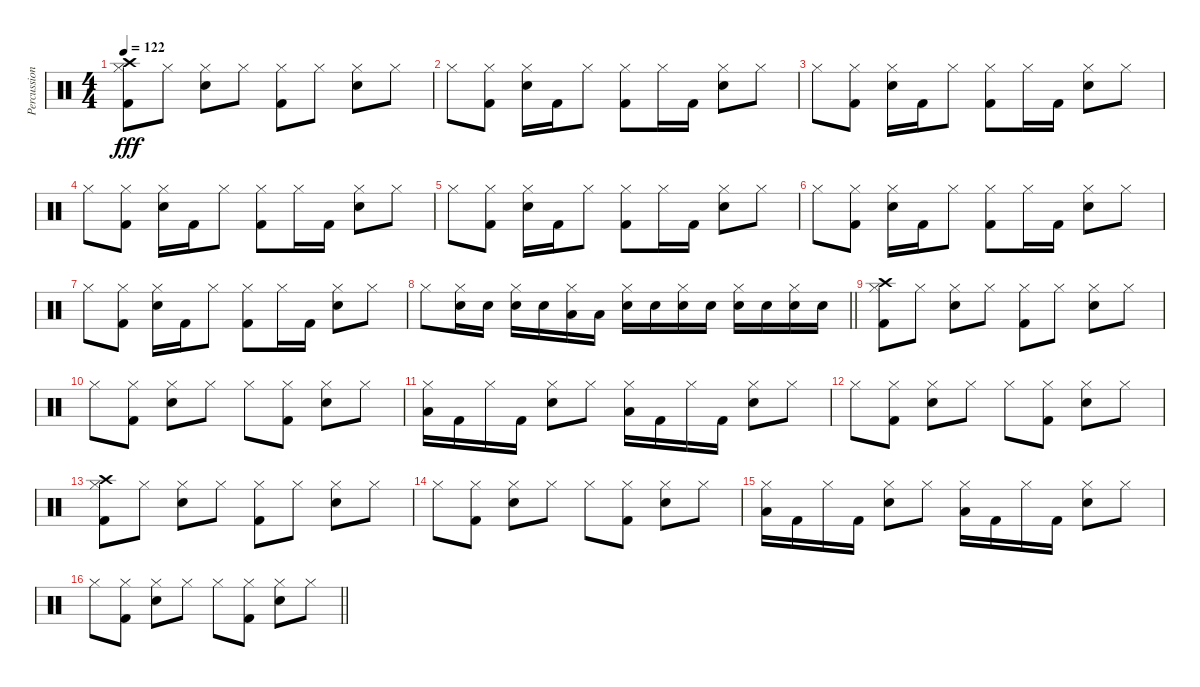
\track ("Percussion" "Percussion") {instrument percussion}
\staff {score}
\articulation defaults
\ts (4 4)
\tempo 122
\clef neutral
\ks c
("Crash high (hit)" "Hi-Hat (closed)" "Kick (hit) 2").8{dy fff} "Hi-Hat (closed)".8 ("Hi-Hat (closed)" "Electric Snare (hit)").8 "Hi-Hat (closed)".8 ("Hi-Hat (closed)" "Kick (hit) 2").8 "Hi-Hat (closed)".8 ("Hi-Hat (closed)" "Electric Snare (hit)").8 "Hi-Hat (closed)".8 |
"Hi-Hat (closed)".8 ("Hi-Hat (closed)" "Kick (hit) 2").8 ("Hi-Hat (closed)" "Electric Snare (hit)").16 "Kick (hit) 2".16 "Hi-Hat (closed)".8 ("Hi-Hat (closed)" "Kick (hit) 2").8 "Hi-Hat (closed)".16 "Kick (hit) 2".16 ("Hi-Hat (closed)" "Electric Snare (hit)").8 "Hi-Hat (closed)".8 |
"Hi-Hat (closed)".8 ("Hi-Hat (closed)" "Kick (hit) 2").8 ("Hi-Hat (closed)" "Electric Snare (hit)").16 "Kick (hit) 2".16 "Hi-Hat (closed)".8 ("Hi-Hat (closed)" "Kick (hit) 2").8 "Hi-Hat (closed)".16 "Kick (hit) 2".16 ("Hi-Hat (closed)" "Electric Snare (hit)").8 "Hi-Hat (closed)".8 |
"Hi-Hat (closed)".8 ("Hi-Hat (closed)" "Kick (hit) 2").8 ("Hi-Hat (closed)" "Electric Snare (hit)").16 "Kick (hit) 2".16 "Hi-Hat (closed)".8 ("Hi-Hat (closed)" "Kick (hit) 2").8 "Hi-Hat (closed)".16 "Kick (hit) 2".16 ("Hi-Hat (closed)" "Electric Snare (hit)").8 "Hi-Hat (closed)".8 |
"Hi-Hat (closed)".8 ("Hi-Hat (closed)" "Kick (hit) 2").8 ("Hi-Hat (closed)" "Electric Snare (hit)").16 "Kick (hit) 2".16 "Hi-Hat (closed)".8 ("Hi-Hat (closed)" "Kick (hit) 2").8 "Hi-Hat (closed)".16 "Kick (hit) 2".16 ("Hi-Hat (closed)" "Electric Snare (hit)").8 "Hi-Hat (closed)".8 |
"Hi-Hat (closed)".8 ("Hi-Hat (closed)" "Kick (hit) 2").8 ("Hi-Hat (closed)" "Electric Snare (hit)").16 "Kick (hit) 2".16 "Hi-Hat (closed)".8 ("Hi-Hat (closed)" "Kick (hit) 2").8 "Hi-Hat (closed)".16 "Kick (hit) 2".16 ("Hi-Hat (closed)" "Electric Snare (hit)").8 "Hi-Hat (closed)".8 |
"Hi-Hat (closed)".8 ("Hi-Hat (closed)" "Kick (hit) 2").8 ("Hi-Hat (closed)" "Electric Snare (hit)").16 "Kick (hit) 2".16 "Hi-Hat (closed)".8 ("Hi-Hat (closed)" "Kick (hit) 2").8 "Hi-Hat (closed)".16 "Kick (hit) 2".16 ("Hi-Hat (closed)" "Electric Snare (hit)").8 "Hi-Hat (closed)".8 |
\barLineRight lightlight "Hi-Hat (closed)".8
("Hi-Hat (closed)" "Electric Snare (hit)").16 "Electric Snare (hit)".16 ("Hi-Hat (closed)" "Electric Snare (hit)").16 "Electric Snare (hit)".16 ("Hi-Hat (closed)" "Low Tom (hit)").16 "Low Tom (hit)".16 ("Hi-Hat (closed)" "Electric Snare (hit)").16 "Electric Snare (hit)".16 ("Hi-Hat (closed)" "Electric Snare (hit)").16 "Electric Snare (hit)".16 ("Hi-Hat (closed)" "Electric Snare (hit)").16 "Electric Snare (hit)".16 ("Hi-Hat (closed)" "Electric Snare (hit)").16 "Electric Snare (hit)".16 |
("Crash high (hit)" "Hi-Hat (closed)" "Kick (hit) 2").8 "Hi-Hat (closed)".8 ("Hi-Hat (closed)" "Electric Snare (hit)").8 "Hi-Hat (closed)".8 ("Hi-Hat (closed)" "Kick (hit) 2").8 "Hi-Hat (closed)".8 ("Hi-Hat (closed)" "Electric Snare (hit)").8 "Hi-Hat (closed)".8 |
"Hi-Hat (closed)".8 ("Hi-Hat (closed)" "Kick (hit) 2").8 ("Hi-Hat (closed)" "Electric Snare (hit)").8 "Hi-Hat (closed)".8 "Hi-Hat (closed)".8 ("Hi-Hat (closed)" "Kick (hit) 2").8 ("Hi-Hat (closed)" "Electric Snare (hit)").8 "Hi-Hat (closed)".8 |
("Hi-Hat (closed)" "Low Tom (hit)").16 "Kick (hit) 2".16 "Hi-Hat (closed)".16 "Kick (hit) 2".16 ("Hi-Hat (closed)" "Electric Snare (hit)").8 "Hi-Hat (closed)".8 ("Hi-Hat (closed)" "Low Tom (hit)").16 "Kick (hit) 2".16 "Hi-Hat (closed)".16 "Kick (hit) 2".16 ("Hi-Hat (closed)" "Electric Snare (hit)").8 "Hi-Hat (closed)".8 |
"Hi-Hat (closed)".8 ("Hi-Hat (closed)" "Kick (hit) 2").8 ("Hi-Hat (closed)" "Electric Snare (hit)").8 "Hi-Hat (closed)".8 "Hi-Hat (closed)".8 ("Hi-Hat (closed)" "Kick (hit) 2").8 ("Hi-Hat (closed)" "Electric Snare (hit)").8 "Hi-Hat (closed)".8 |
("Crash high (hit)" "Hi-Hat (closed)" "Kick (hit) 2").8 "Hi-Hat (closed)".8 ("Hi-Hat (closed)" "Electric Snare (hit)").8 "Hi-Hat (closed)".8 ("Hi-Hat (closed)" "Kick (hit) 2").8 "Hi-Hat (closed)".8 ("Hi-Hat (closed)" "Electric Snare (hit)").8 "Hi-Hat (closed)".8 |
"Hi-Hat (closed)".8 ("Hi-Hat (closed)" "Kick (hit) 2").8 ("Hi-Hat (closed)" "Electric Snare (hit)").8 "Hi-Hat (closed)".8 "Hi-Hat (closed)".8 ("Hi-Hat (closed)" "Kick (hit) 2").8 ("Hi-Hat (closed)" "Electric Snare (hit)").8 "Hi-Hat (closed)".8 |
("Hi-Hat (closed)" "Low Tom (hit)").16 "Kick (hit) 2".16 "Hi-Hat (closed)".16 "Kick (hit) 2".16 ("Hi-Hat (closed)" "Electric Snare (hit)").8 "Hi-Hat (closed)".8 ("Hi-Hat (closed)" "Low Tom (hit)").16 "Kick (hit) 2".16 "Hi-Hat (closed)".16 "Kick (hit) 2".16 ("Hi-Hat (closed)" "Electric Snare (hit)").8 "Hi-Hat (closed)".8 |
\barLineRight lightlight "Hi-Hat (closed)".8
("Hi-Hat (closed)" "Kick (hit) 2").8 ("Hi-Hat (closed)" "Electric Snare (hit)").8 "Hi-Hat (closed)".8 "Hi-Hat (closed)".8 ("Hi-Hat (closed)" "Kick (hit) 2").8 ("Hi-Hat (closed)" "Electric Snare (hit)").8 "Hi-Hat (closed)".8
